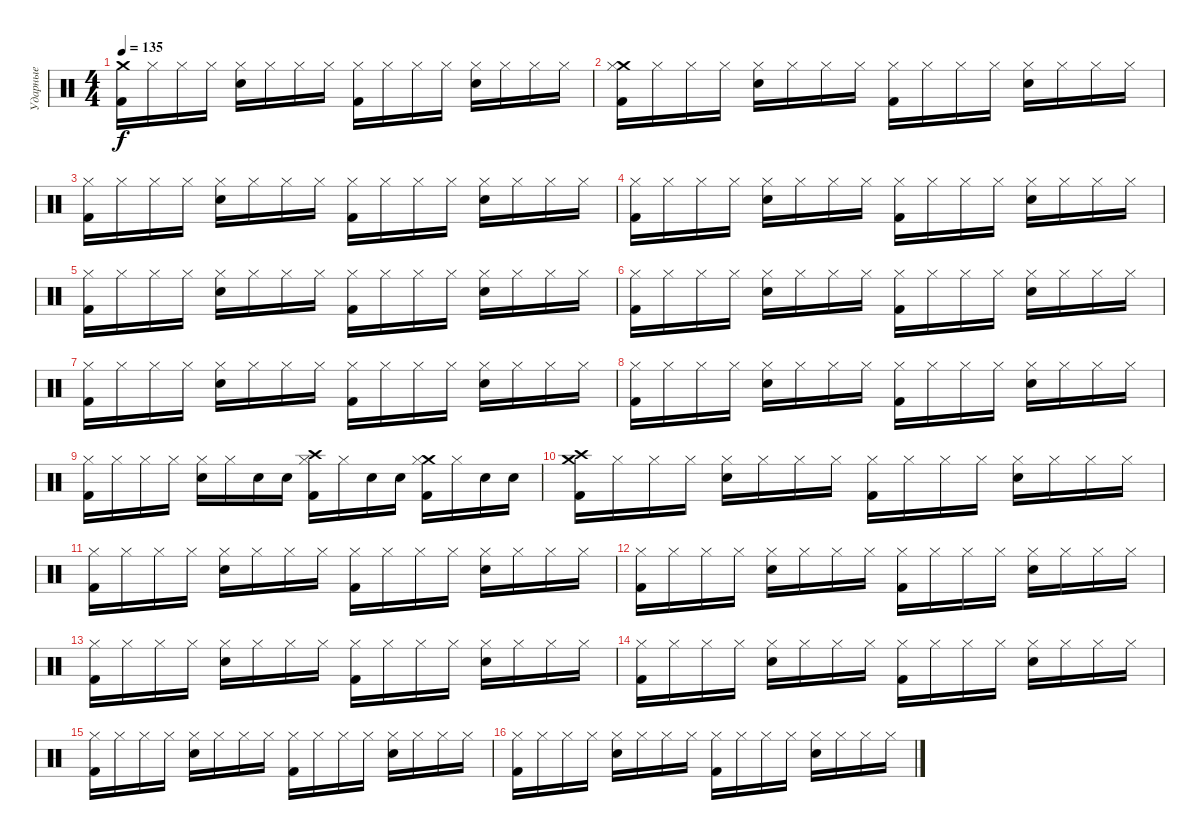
\track ("Ударные" "Ударные") {instrument percussion}
\staff {score}
\articulation defaults
\ts (4 4)
\tempo 135
\clef neutral
\ks c
("Crash medium (hit)" "Kick (hit) 2").16{dy f} "Hi-Hat (closed)".16 "Hi-Hat (closed)".16 "Hi-Hat (closed)".16 ("Hi-Hat (closed)" "Snare (hit) 2").16 "Hi-Hat (closed)".16 "Hi-Hat (closed)".16 "Hi-Hat (closed)".16 ("Hi-Hat (closed)" "Kick (hit) 2").16 "Hi-Hat (closed)".16 "Hi-Hat (closed)".16 "Hi-Hat (closed)".16 ("Hi-Hat (closed)" "Snare (hit) 2").16 "Hi-Hat (closed)".16 "Hi-Hat (closed)".16 "Hi-Hat (closed)".16 |
("Crash medium (hit)" "Hi-Hat (closed)" "Kick (hit) 2").16 "Hi-Hat (closed)".16 "Hi-Hat (closed)".16 "Hi-Hat (closed)".16 ("Hi-Hat (closed)" "Snare (hit) 2").16 "Hi-Hat (closed)".16 "Hi-Hat (closed)".16 "Hi-Hat (closed)".16 ("Hi-Hat (closed)" "Kick (hit) 2").16 "Hi-Hat (closed)".16 "Hi-Hat (closed)".16 "Hi-Hat (closed)".16 ("Hi-Hat (closed)" "Snare (hit) 2").16 "Hi-Hat (closed)".16 "Hi-Hat (closed)".16 "Hi-Hat (closed)".16 |
("Hi-Hat (closed)" "Kick (hit) 2").16 "Hi-Hat (closed)".16 "Hi-Hat (closed)".16 "Hi-Hat (closed)".16 ("Hi-Hat (closed)" "Snare (hit) 2").16 "Hi-Hat (closed)".16 "Hi-Hat (closed)".16 "Hi-Hat (closed)".16 ("Hi-Hat (closed)" "Kick (hit) 2").16 "Hi-Hat (closed)".16 "Hi-Hat (closed)".16 "Hi-Hat (closed)".16 ("Hi-Hat (closed)" "Snare (hit) 2").16 "Hi-Hat (closed)".16 "Hi-Hat (closed)".16 "Hi-Hat (closed)".16 |
("Hi-Hat (closed)" "Kick (hit) 2").16 "Hi-Hat (closed)".16 "Hi-Hat (closed)".16 "Hi-Hat (closed)".16 ("Hi-Hat (closed)" "Snare (hit) 2").16 "Hi-Hat (closed)".16 "Hi-Hat (closed)".16 "Hi-Hat (closed)".16 ("Hi-Hat (closed)" "Kick (hit) 2").16 "Hi-Hat (closed)".16 "Hi-Hat (closed)".16 "Hi-Hat (closed)".16 ("Hi-Hat (closed)" "Snare (hit) 2").16 "Hi-Hat (closed)".16 "Hi-Hat (closed)".16 "Hi-Hat (closed)".16 |
("Hi-Hat (closed)" "Kick (hit) 2").16 "Hi-Hat (closed)".16 "Hi-Hat (closed)".16 "Hi-Hat (closed)".16 ("Hi-Hat (closed)" "Snare (hit) 2").16 "Hi-Hat (closed)".16 "Hi-Hat (closed)".16 "Hi-Hat (closed)".16 ("Hi-Hat (closed)" "Kick (hit) 2").16 "Hi-Hat (closed)".16 "Hi-Hat (closed)".16 "Hi-Hat (closed)".16 ("Hi-Hat (closed)" "Snare (hit) 2").16 "Hi-Hat (closed)".16 "Hi-Hat (closed)".16 "Hi-Hat (closed)".16 |
("Hi-Hat (closed)" "Kick (hit) 2").16 "Hi-Hat (closed)".16 "Hi-Hat (closed)".16 "Hi-Hat (closed)".16 ("Hi-Hat (closed)" "Snare (hit) 2").16 "Hi-Hat (closed)".16 "Hi-Hat (closed)".16 "Hi-Hat (closed)".16 ("Hi-Hat (closed)" "Kick (hit) 2").16 "Hi-Hat (closed)".16 "Hi-Hat (closed)".16 "Hi-Hat (closed)".16 ("Hi-Hat (closed)" "Snare (hit) 2").16 "Hi-Hat (closed)".16 "Hi-Hat (closed)".16 "Hi-Hat (closed)".16 |
("Hi-Hat (closed)" "Kick (hit) 2").16 "Hi-Hat (closed)".16 "Hi-Hat (closed)".16 "Hi-Hat (closed)".16 ("Hi-Hat (closed)" "Snare (hit) 2").16 "Hi-Hat (closed)".16 "Hi-Hat (closed)".16 "Hi-Hat (closed)".16 ("Hi-Hat (closed)" "Kick (hit) 2").16 "Hi-Hat (closed)".16 "Hi-Hat (closed)".16 "Hi-Hat (closed)".16 ("Hi-Hat (closed)" "Snare (hit) 2").16 "Hi-Hat (closed)".16 "Hi-Hat (closed)".16 "Hi-Hat (closed)".16 |
("Hi-Hat (closed)" "Kick (hit) 2").16 "Hi-Hat (closed)".16 "Hi-Hat (closed)".16 "Hi-Hat (closed)".16 ("Hi-Hat (closed)" "Snare (hit) 2").16 "Hi-Hat (closed)".16 "Hi-Hat (closed)".16 "Hi-Hat (closed)".16 ("Hi-Hat (closed)" "Kick (hit) 2").16 "Hi-Hat (closed)".16 "Hi-Hat (closed)".16 "Hi-Hat (closed)".16 ("Hi-Hat (closed)" "Snare (hit) 2").16 "Hi-Hat (closed)".16 "Hi-Hat (closed)".16 "Hi-Hat (closed)".16 |
("Hi-Hat (closed)" "Kick (hit) 2").16 "Hi-Hat (closed)".16 "Hi-Hat (closed)".16 "Hi-Hat (closed)".16 ("Hi-Hat (closed)" "Snare (hit) 2").16 "Hi-Hat (closed)".16 "Snare (hit) 2".16 "Snare (hit) 2".16 ("Crash high (hit)" "Hi-Hat (closed)" "Kick (hit) 2").16 "Hi-Hat (closed)".16 "Snare (hit) 2".16 "Snare (hit) 2".16 ("Crash medium (hit)" "Hi-Hat (closed)" "Kick (hit) 2").16 "Hi-Hat (closed)".16 "Snare (hit) 2".16 "Snare (hit) 2".16 |
("Crash medium (hit)" "Crash high (hit)" "Kick (hit) 2").16 "Hi-Hat (closed)".16 "Hi-Hat (closed)".16 "Hi-Hat (closed)".16 ("Hi-Hat (closed)" "Snare (hit) 2").16 "Hi-Hat (closed)".16 "Hi-Hat (closed)".16 "Hi-Hat (closed)".16 ("Hi-Hat (closed)" "Kick (hit) 2").16 "Hi-Hat (closed)".16 "Hi-Hat (closed)".16 "Hi-Hat (closed)".16 ("Hi-Hat (closed)" "Snare (hit) 2").16 "Hi-Hat (closed)".16 "Hi-Hat (closed)".16 "Hi-Hat (closed)".16 |
("Hi-Hat (closed)" "Kick (hit) 2").16 "Hi-Hat (closed)".16 "Hi-Hat (closed)".16 "Hi-Hat (closed)".16 ("Hi-Hat (closed)" "Snare (hit) 2").16 "Hi-Hat (closed)".16 "Hi-Hat (closed)".16 "Hi-Hat (closed)".16 ("Hi-Hat (closed)" "Kick (hit) 2").16 "Hi-Hat (closed)".16 "Hi-Hat (closed)".16 "Hi-Hat (closed)".16 ("Hi-Hat (closed)" "Snare (hit) 2").16 "Hi-Hat (closed)".16 "Hi-Hat (closed)".16 "Hi-Hat (closed)".16 |
("Hi-Hat (closed)" "Kick (hit) 2").16 "Hi-Hat (closed)".16 "Hi-Hat (closed)".16 "Hi-Hat (closed)".16 ("Hi-Hat (closed)" "Snare (hit) 2").16 "Hi-Hat (closed)".16 "Hi-Hat (closed)".16 "Hi-Hat (closed)".16 ("Hi-Hat (closed)" "Kick (hit) 2").16 "Hi-Hat (closed)".16 "Hi-Hat (closed)".16 "Hi-Hat (closed)".16 ("Hi-Hat (closed)" "Snare (hit) 2").16 "Hi-Hat (closed)".16 "Hi-Hat (closed)".16 "Hi-Hat (closed)".16 |
("Hi-Hat (closed)" "Kick (hit) 2").16 "Hi-Hat (closed)".16 "Hi-Hat (closed)".16 "Hi-Hat (closed)".16 ("Hi-Hat (closed)" "Snare (hit) 2").16 "Hi-Hat (closed)".16 "Hi-Hat (closed)".16 "Hi-Hat (closed)".16 ("Hi-Hat (closed)" "Kick (hit) 2").16 "Hi-Hat (closed)".16 "Hi-Hat (closed)".16 "Hi-Hat (closed)".16 ("Hi-Hat (closed)" "Snare (hit) 2").16 "Hi-Hat (closed)".16 "Hi-Hat (closed)".16 "Hi-Hat (closed)".16 |
("Hi-Hat (closed)" "Kick (hit) 2").16 "Hi-Hat (closed)".16 "Hi-Hat (closed)".16 "Hi-Hat (closed)".16 ("Hi-Hat (closed)" "Snare (hit) 2").16 "Hi-Hat (closed)".16 "Hi-Hat (closed)".16 "Hi-Hat (closed)".16 ("Hi-Hat (closed)" "Kick (hit) 2").16 "Hi-Hat (closed)".16 "Hi-Hat (closed)".16 "Hi-Hat (closed)".16 ("Hi-Hat (closed)" "Snare (hit) 2").16 "Hi-Hat (closed)".16 "Hi-Hat (closed)".16 "Hi-Hat (closed)".16 |
("Hi-Hat (closed)" "Kick (hit) 2").16 "Hi-Hat (closed)".16 "Hi-Hat (closed)".16 "Hi-Hat (closed)".16 ("Hi-Hat (closed)" "Snare (hit) 2").16 "Hi-Hat (closed)".16 "Hi-Hat (closed)".16 "Hi-Hat (closed)".16 ("Hi-Hat (closed)" "Kick (hit) 2").16 "Hi-Hat (closed)".16 "Hi-Hat (closed)".16 "Hi-Hat (closed)".16 ("Hi-Hat (closed)" "Snare (hit) 2").16 "Hi-Hat (closed)".16 "Hi-Hat (closed)".16 "Hi-Hat (closed)".16 |
("Hi-Hat (closed)" "Kick (hit) 2").16 "Hi-Hat (closed)".16 "Hi-Hat (closed)".16 "Hi-Hat (closed)".16 ("Hi-Hat (closed)" "Snare (hit) 2").16 "Hi-Hat (closed)".16 "Hi-Hat (closed)".16 "Hi-Hat (closed)".16 ("Hi-Hat (closed)" "Kick (hit) 2").16 "Hi-Hat (closed)".16 "Hi-Hat (closed)".16 "Hi-Hat (closed)".16 ("Hi-Hat (closed)" "Snare (hit) 2").16 "Hi-Hat (closed)".16 "Hi-Hat (closed)".16 "Hi-Hat (closed)".16
